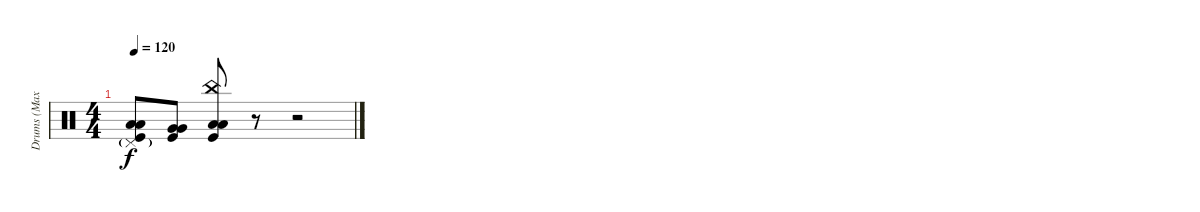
\track ("Drums (Max Duhamel)" "Drums (Max") {instrument percussion}
\staff {score}
\articulation defaults
\ts (4 4)
\tempo 120
\clef neutral
\ks c
("Pedal Hi-Hat (hit)"{g} "Low Tom (hit)" "Low Tom (hit)" "Kick (hit)").8{dy f} ("Very Low Tom (hit)" "Very Low Tom (hit)" "Kick (hit)").8 ("China (hit)" "Low Floor Tom (hit)" "Low Floor Tom (hit)" "Kick (hit)").8 r.8 r.2
